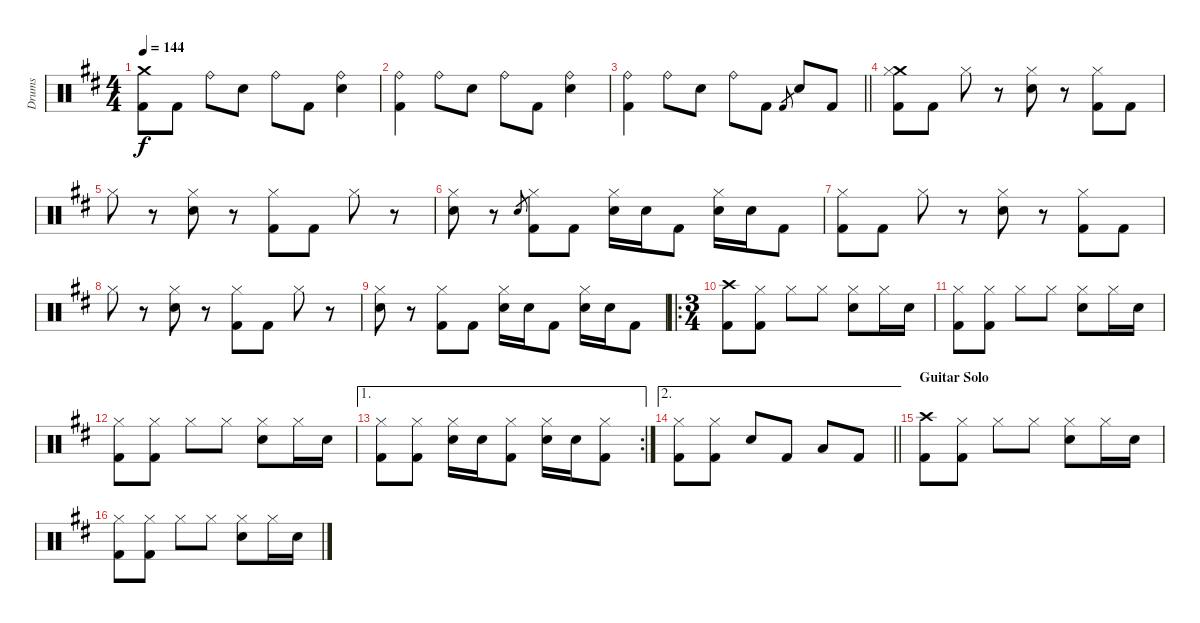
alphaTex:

\track ("Drums" "Drums") {instrument percussion}
\staff {score}
\articulation defaults
\ts (4 4)
\tempo 144
\clef neutral
\ks d
("Crash medium (hit)" "Kick (hit) 2").8{dy f} "Kick (hit) 2".8 "Ride (bell)".8 "Snare (hit) 2".8 "Ride (bell)".8 "Kick (hit) 2".8 ("Ride (bell)" "Snare (hit) 2").4 |
("Ride (bell)" "Kick (hit) 2").4 "Ride (bell)".8 "Snare (hit) 2".8 "Ride (bell)".8 "Kick (hit) 2".8 ("Ride (bell)" "Snare (hit) 2").4 |
\barLineRight lightlight
("Ride (bell)" "Kick (hit) 2").4 "Ride (bell)".8 "Snare (hit) 2".8 "Ride (bell)".8 "Kick (hit) 2".8 "Kick (hit) 2".8{gr} "Snare (hit) 2".8 "Kick (hit) 2".8 |
("Crash medium (hit)" "Hi-Hat (closed)" "Kick (hit) 2").8 "Kick (hit) 2".8 "Hi-Hat (closed)".8 r.8 ("Hi-Hat (closed)" "Snare (hit) 2").8 r.8 ("Hi-Hat (closed)" "Kick (hit) 2").8 "Kick (hit) 2".8 |
"Hi-Hat (closed)".8 r.8 ("Hi-Hat (closed)" "Snare (hit) 2").8 r.8 ("Hi-Hat (closed)" "Kick (hit) 2").8 "Kick (hit) 2".8 "Hi-Hat (closed)".8 r.8 |
("Hi-Hat (closed)" "Snare (hit) 2").8 r.8 "Snare (hit) 2".8{gr} ("Hi-Hat (closed)" "Kick (hit) 2").8 "Kick (hit) 2".8 ("Hi-Hat (closed)" "Snare (hit) 2").16 "Snare (hit) 2".16 "Kick (hit) 2".8 ("Hi-Hat (closed)" "Snare (hit) 2").16 "Snare (hit) 2".16 "Kick (hit) 2".8 |
("Hi-Hat (closed)" "Kick (hit) 2").8 "Kick (hit) 2".8 "Hi-Hat (closed)".8 r.8 ("Hi-Hat (closed)" "Snare (hit) 2").8 r.8 ("Hi-Hat (closed)" "Kick (hit) 2").8 "Kick (hit) 2".8 |
"Hi-Hat (closed)".8 r.8 ("Hi-Hat (closed)" "Snare (hit) 2").8 r.8 ("Hi-Hat (closed)" "Kick (hit) 2").8 "Kick (hit) 2".8 "Hi-Hat (closed)".8 r.8 |
("Hi-Hat (closed)" "Snare (hit) 2").8 r.8 ("Hi-Hat (closed)" "Kick (hit) 2").8 "Kick (hit) 2".8 ("Hi-Hat (closed)" "Snare (hit) 2").16 "Snare (hit) 2".16 "Kick (hit) 2".8 ("Hi-Hat (closed)" "Snare (hit) 2").16 "Snare (hit) 2".16 "Kick (hit) 2".8 |
\ro
\ts (3 4)
("Crash high (hit)" "Kick (hit) 2").8 ("Hi-Hat (closed)" "Kick (hit) 2").8 "Hi-Hat (closed)".8 "Hi-Hat (closed)".8 ("Hi-Hat (closed)" "Snare (hit) 2").8 "Hi-Hat (closed)".16 "Snare (hit) 2".16 |
("Hi-Hat (closed)" "Kick (hit) 2").8 ("Hi-Hat (closed)" "Kick (hit) 2").8 "Hi-Hat (closed)".8 "Hi-Hat (closed)".8 ("Hi-Hat (closed)" "Snare (hit) 2").8 "Hi-Hat (closed)".16 "Snare (hit) 2".16 |
("Hi-Hat (closed)" "Kick (hit) 2").8 ("Hi-Hat (closed)" "Kick (hit) 2").8 "Hi-Hat (closed)".8 "Hi-Hat (closed)".8 ("Hi-Hat (closed)" "Snare (hit) 2").8 "Hi-Hat (closed)".16 "Snare (hit) 2".16 |
\ae 1
\rc 2
("Hi-Hat (closed)" "Kick (hit) 2").8 ("Hi-Hat (closed)" "Kick (hit) 2").8 ("Hi-Hat (closed)" "Snare (hit) 2").16 "Snare (hit) 2".16 ("Hi-Hat (closed)" "Kick (hit) 2").8 ("Hi-Hat (closed)" "Snare (hit) 2").16 "Snare (hit) 2".16 ("Hi-Hat (closed)" "Kick (hit) 2").8 |
\ae 2
\barLineRight lightlight
("Hi-Hat (closed)" "Kick (hit) 2").8 ("Hi-Hat (closed)" "Kick (hit) 2").8 "Snare (hit) 2".8 "Kick (hit) 2".8 "Low Tom (hit)".8 "Kick (hit) 2".8 |
\section ("" "Guitar Solo")
("Crash high (hit)" "Kick (hit) 2").8 ("Hi-Hat (closed)" "Kick (hit) 2").8 "Hi-Hat (closed)".8 "Hi-Hat (closed)".8 ("Hi-Hat (closed)" "Snare (hit) 2").8 "Hi-Hat (closed)".16 "Snare (hit) 2".16 |
("Hi-Hat (closed)" "Kick (hit) 2").8 ("Hi-Hat (closed)" "Kick (hit) 2").8 "Hi-Hat (closed)".8 "Hi-Hat (closed)".8 ("Hi-Hat (closed)" "Snare (hit) 2").8 "Hi-Hat (closed)".16 "Snare (hit) 2".16
